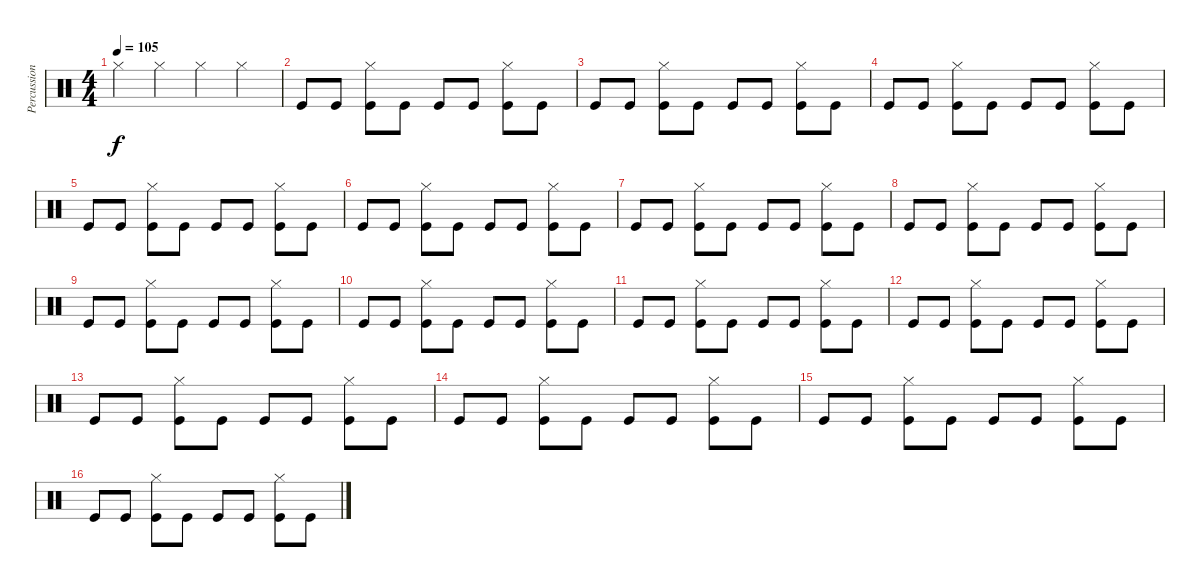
\track ("Percussion" "Percussion") {instrument percussion}
\staff {score}
\articulation defaults
\ts (4 4)
\tempo 105
\clef neutral
\ks c "Hi-Hat (closed)".4{dy f} "Hi-Hat (closed)".4 "Hi-Hat (closed)".4 "Hi-Hat (closed)".4
|
"Kick (hit)".8{volume 0} "Kick (hit)".8 ("Hi-Hat (closed)" "Kick (hit)").8 "Kick (hit)".8 "Kick (hit)".8 "Kick (hit)".8 ("Hi-Hat (closed)" "Kick (hit)").8 "Kick (hit)".8 |
"Kick (hit)".8{volume 8} "Kick (hit)".8 ("Hi-Hat (closed)" "Kick (hit)").8 "Kick (hit)".8 "Kick (hit)".8 "Kick (hit)".8 ("Hi-Hat (closed)" "Kick (hit)").8 "Kick (hit)".8 |
"Kick (hit)".8 "Kick (hit)".8 ("Hi-Hat (closed)" "Kick (hit)").8 "Kick (hit)".8 "Kick (hit)".8 "Kick (hit)".8 ("Hi-Hat (closed)" "Kick (hit)").8 "Kick (hit)".8 |
"Kick (hit)".8 "Kick (hit)".8 ("Hi-Hat (closed)" "Kick (hit)").8 "Kick (hit)".8 "Kick (hit)".8 "Kick (hit)".8 ("Hi-Hat (closed)" "Kick (hit)").8 "Kick (hit)".8 |
"Kick (hit)".8 "Kick (hit)".8 ("Hi-Hat (closed)" "Kick (hit)").8 "Kick (hit)".8 "Kick (hit)".8 "Kick (hit)".8 ("Hi-Hat (closed)" "Kick (hit)").8 "Kick (hit)".8 |
"Kick (hit)".8 "Kick (hit)".8 ("Hi-Hat (closed)" "Kick (hit)").8 "Kick (hit)".8 "Kick (hit)".8 "Kick (hit)".8 ("Hi-Hat (closed)" "Kick (hit)").8 "Kick (hit)".8 |
"Kick (hit)".8 "Kick (hit)".8 ("Hi-Hat (closed)" "Kick (hit)").8 "Kick (hit)".8 "Kick (hit)".8 "Kick (hit)".8 ("Hi-Hat (closed)" "Kick (hit)").8 "Kick (hit)".8 |
"Kick (hit)".8 "Kick (hit)".8 ("Hi-Hat (closed)" "Kick (hit)").8 "Kick (hit)".8 "Kick (hit)".8 "Kick (hit)".8 ("Hi-Hat (closed)" "Kick (hit)").8 "Kick (hit)".8 |
"Kick (hit)".8 "Kick (hit)".8 ("Hi-Hat (closed)" "Kick (hit)").8 "Kick (hit)".8 "Kick (hit)".8 "Kick (hit)".8 ("Hi-Hat (closed)" "Kick (hit)").8 "Kick (hit)".8 |
"Kick (hit)".8 "Kick (hit)".8 ("Hi-Hat (closed)" "Kick (hit)").8 "Kick (hit)".8 "Kick (hit)".8 "Kick (hit)".8 ("Hi-Hat (closed)" "Kick (hit)").8 "Kick (hit)".8 |
"Kick (hit)".8 "Kick (hit)".8 ("Hi-Hat (closed)" "Kick (hit)").8 "Kick (hit)".8 "Kick (hit)".8 "Kick (hit)".8 ("Hi-Hat (closed)" "Kick (hit)").8 "Kick (hit)".8 |
"Kick (hit)".8 "Kick (hit)".8 ("Hi-Hat (closed)" "Kick (hit)").8 "Kick (hit)".8 "Kick (hit)".8 "Kick (hit)".8 ("Hi-Hat (closed)" "Kick (hit)").8 "Kick (hit)".8 |
"Kick (hit)".8 "Kick (hit)".8 ("Hi-Hat (closed)" "Kick (hit)").8 "Kick (hit)".8 "Kick (hit)".8 "Kick (hit)".8 ("Hi-Hat (closed)" "Kick (hit)").8 "Kick (hit)".8 |
"Kick (hit)".8 "Kick (hit)".8 ("Hi-Hat (closed)" "Kick (hit)").8 "Kick (hit)".8 "Kick (hit)".8 "Kick (hit)".8 ("Hi-Hat (closed)" "Kick (hit)").8 "Kick (hit)".8 |
"Kick (hit)".8 "Kick (hit)".8 ("Hi-Hat (closed)" "Kick (hit)").8 "Kick (hit)".8 "Kick (hit)".8 "Kick (hit)".8 ("Hi-Hat (closed)" "Kick (hit)").8 "Kick (hit)".8
